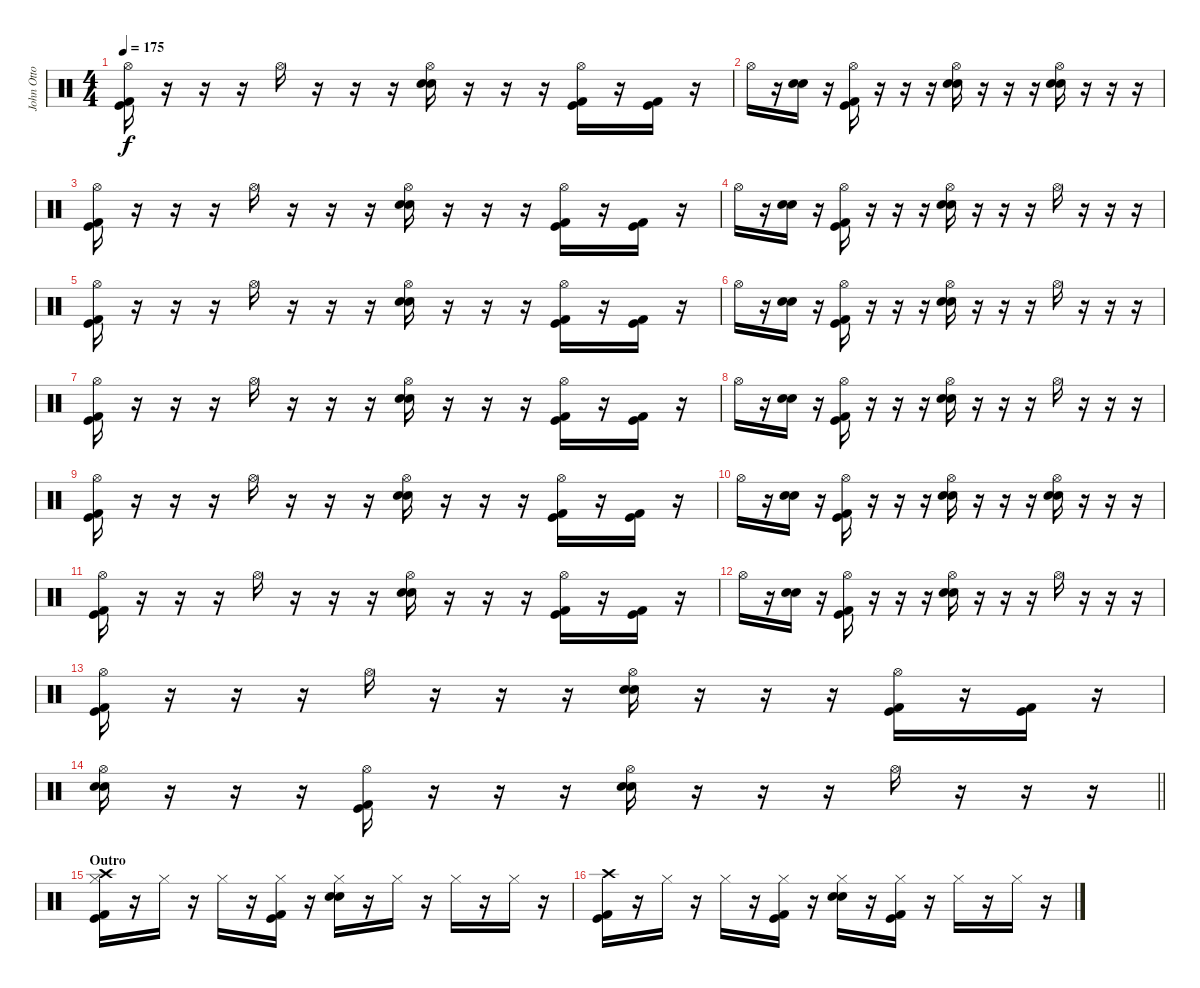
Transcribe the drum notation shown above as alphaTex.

\track ("John Otto" "John Otto") {instrument percussion}
\staff {score}
\articulation defaults
\ts (4 4)
\tempo 175
\clef neutral
\ks c
("Hi-Hat (open)" "Kick (hit) 2" "Kick (hit)").16{dy f} r.16 r.16 r.16 "Hi-Hat (open)".16 r.16 r.16 r.16 ("Hi-Hat (open)" "Electric Snare (hit)" "Snare (hit) 2").16 r.16 r.16 r.16 ("Hi-Hat (open)" "Kick (hit) 2" "Kick (hit)").16 r.16 ("Kick (hit) 2" "Kick (hit)").16 r.16 |
"Hi-Hat (open)".16 r.16 ("Electric Snare (hit)" "Snare (hit) 2").16 r.16 ("Hi-Hat (open)" "Kick (hit) 2" "Kick (hit)").16 r.16 r.16 r.16 ("Hi-Hat (open)" "Electric Snare (hit)" "Snare (hit) 2").16 r.16 r.16 r.16 ("Hi-Hat (open)" "Electric Snare (hit)" "Snare (hit) 2").16 r.16 r.16 r.16 |
("Hi-Hat (open)" "Kick (hit) 2" "Kick (hit)").16 r.16 r.16 r.16 "Hi-Hat (open)".16 r.16 r.16 r.16 ("Hi-Hat (open)" "Electric Snare (hit)" "Snare (hit) 2").16 r.16 r.16 r.16 ("Hi-Hat (open)" "Kick (hit) 2" "Kick (hit)").16 r.16 ("Kick (hit) 2" "Kick (hit)").16 r.16 |
"Hi-Hat (open)".16 r.16 ("Electric Snare (hit)" "Snare (hit) 2").16 r.16 ("Hi-Hat (open)" "Kick (hit) 2" "Kick (hit)").16 r.16 r.16 r.16 ("Hi-Hat (open)" "Electric Snare (hit)" "Snare (hit) 2").16 r.16 r.16 r.16 "Hi-Hat (open)".16 r.16 r.16 r.16 |
("Hi-Hat (open)" "Kick (hit) 2" "Kick (hit)").16 r.16 r.16 r.16 "Hi-Hat (open)".16 r.16 r.16 r.16 ("Hi-Hat (open)" "Electric Snare (hit)" "Snare (hit) 2").16 r.16 r.16 r.16 ("Hi-Hat (open)" "Kick (hit) 2" "Kick (hit)").16 r.16 ("Kick (hit) 2" "Kick (hit)").16 r.16 |
"Hi-Hat (open)".16 r.16 ("Electric Snare (hit)" "Snare (hit) 2").16 r.16 ("Hi-Hat (open)" "Kick (hit) 2" "Kick (hit)").16 r.16 r.16 r.16 ("Hi-Hat (open)" "Electric Snare (hit)" "Snare (hit) 2").16 r.16 r.16 r.16 "Hi-Hat (open)".16 r.16 r.16 r.16 |
("Hi-Hat (open)" "Kick (hit) 2" "Kick (hit)").16 r.16 r.16 r.16 "Hi-Hat (open)".16 r.16 r.16 r.16 ("Hi-Hat (open)" "Electric Snare (hit)" "Snare (hit) 2").16 r.16 r.16 r.16 ("Hi-Hat (open)" "Kick (hit) 2" "Kick (hit)").16 r.16 ("Kick (hit) 2" "Kick (hit)").16 r.16 |
"Hi-Hat (open)".16 r.16 ("Electric Snare (hit)" "Snare (hit) 2").16 r.16 ("Hi-Hat (open)" "Kick (hit) 2" "Kick (hit)").16 r.16 r.16 r.16 ("Hi-Hat (open)" "Electric Snare (hit)" "Snare (hit) 2").16 r.16 r.16 r.16 "Hi-Hat (open)".16 r.16 r.16 r.16 |
("Hi-Hat (open)" "Kick (hit) 2" "Kick (hit)").16 r.16 r.16 r.16 "Hi-Hat (open)".16 r.16 r.16 r.16 ("Hi-Hat (open)" "Electric Snare (hit)" "Snare (hit) 2").16 r.16 r.16 r.16 ("Hi-Hat (open)" "Kick (hit) 2" "Kick (hit)").16 r.16 ("Kick (hit) 2" "Kick (hit)").16 r.16 |
"Hi-Hat (open)".16 r.16 ("Electric Snare (hit)" "Snare (hit) 2").16 r.16 ("Hi-Hat (open)" "Kick (hit) 2" "Kick (hit)").16 r.16 r.16 r.16 ("Hi-Hat (open)" "Electric Snare (hit)" "Snare (hit) 2").16 r.16 r.16 r.16 ("Hi-Hat (open)" "Electric Snare (hit)" "Snare (hit) 2").16 r.16 r.16 r.16 |
("Hi-Hat (open)" "Kick (hit) 2" "Kick (hit)").16 r.16 r.16 r.16 "Hi-Hat (open)".16 r.16 r.16 r.16 ("Hi-Hat (open)" "Electric Snare (hit)" "Snare (hit) 2").16 r.16 r.16 r.16 ("Hi-Hat (open)" "Kick (hit) 2" "Kick (hit)").16 r.16 ("Kick (hit) 2" "Kick (hit)").16 r.16 |
"Hi-Hat (open)".16 r.16 ("Electric Snare (hit)" "Snare (hit) 2").16 r.16 ("Hi-Hat (open)" "Kick (hit) 2" "Kick (hit)").16 r.16 r.16 r.16 ("Hi-Hat (open)" "Electric Snare (hit)" "Snare (hit) 2").16 r.16 r.16 r.16 "Hi-Hat (open)".16 r.16 r.16 r.16 |
("Hi-Hat (open)" "Kick (hit) 2" "Kick (hit)").16 r.16 r.16 r.16 "Hi-Hat (open)".16 r.16 r.16 r.16 ("Hi-Hat (open)" "Electric Snare (hit)" "Snare (hit) 2").16 r.16 r.16 r.16 ("Hi-Hat (open)" "Kick (hit) 2" "Kick (hit)").16 r.16 ("Kick (hit) 2" "Kick (hit)").16 r.16 |
\barLineRight lightlight
("Hi-Hat (open)" "Electric Snare (hit)" "Snare (hit) 2").16 r.16 r.16 r.16 ("Hi-Hat (open)" "Kick (hit) 2" "Kick (hit)").16 r.16 r.16 r.16 ("Hi-Hat (open)" "Electric Snare (hit)" "Snare (hit) 2").16 r.16 r.16 r.16 "Hi-Hat (open)".16 r.16 r.16 r.16 |
\section ("" "Outro")
("Crash high (hit)" "Hi-Hat (closed)" "Kick (hit) 2" "Kick (hit)").16 r.16 "Hi-Hat (closed)".16 r.16 "Hi-Hat (closed)".16 r.16 ("Hi-Hat (closed)" "Kick (hit) 2" "Kick (hit)").16 r.16 ("Hi-Hat (closed)" "Electric Snare (hit)" "Snare (hit) 2").16 r.16 "Hi-Hat (closed)".16 r.16 "Hi-Hat (closed)".16 r.16 "Hi-Hat (closed)".16 r.16 |
("Crash high (hit)" "Kick (hit) 2" "Kick (hit)").16 r.16 "Hi-Hat (closed)".16 r.16 "Hi-Hat (closed)".16 r.16 ("Hi-Hat (closed)" "Kick (hit) 2" "Kick (hit)").16 r.16 ("Hi-Hat (closed)" "Electric Snare (hit)" "Snare (hit) 2").16 r.16 ("Hi-Hat (closed)" "Kick (hit) 2" "Kick (hit)").16 r.16 "Hi-Hat (closed)".16 r.16 "Hi-Hat (closed)".16 r.16
